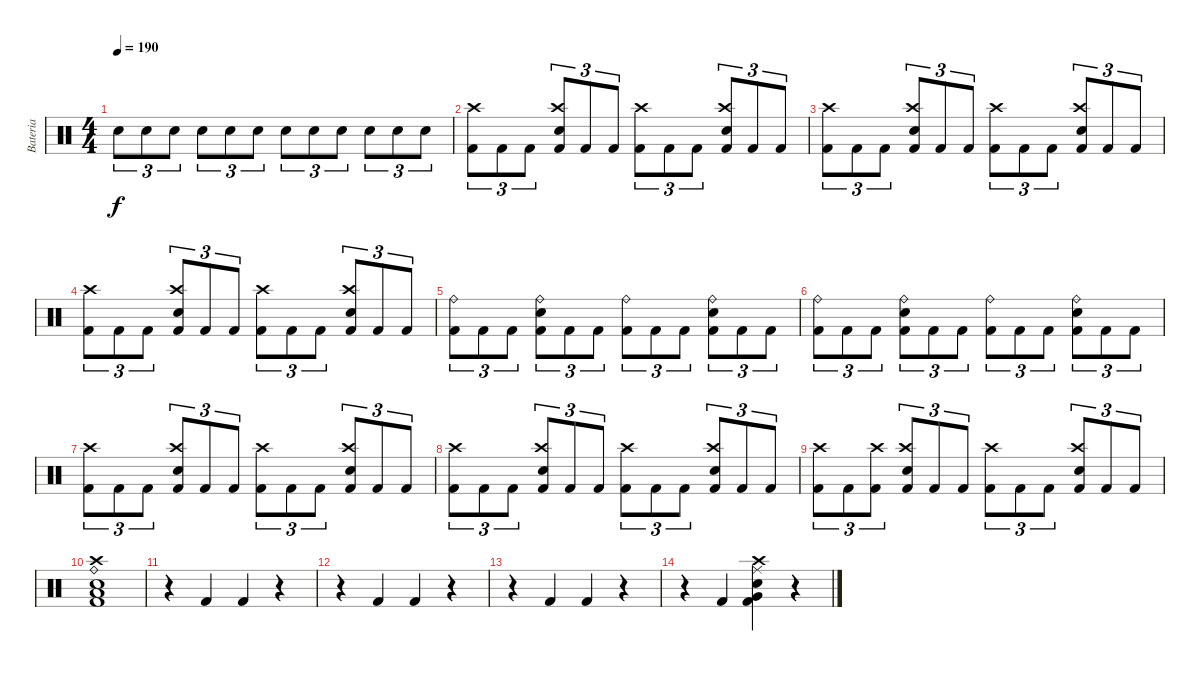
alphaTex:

\track ("Bateria" "Bateria") {instrument percussion}
\staff {score}
\articulation defaults
\ts (4 4)
\tempo 190
\clef neutral
\ks c "Electric Snare (hit)".8{tu (3 2) dy f} "Electric Snare (hit)".8{tu (3 2)} "Electric Snare (hit)".8{tu (3 2)} "Electric Snare (hit)".8{tu (3 2)} "Electric Snare (hit)".8{tu (3 2)} "Electric Snare (hit)".8{tu (3 2)} "Electric Snare (hit)".8{tu (3 2)} "Electric Snare (hit)".8{tu (3 2)} "Electric Snare (hit)".8{tu (3 2)} "Electric Snare (hit)".8{tu (3 2)} "Electric Snare (hit)".8{tu (3 2)} "Electric Snare (hit)".8{tu (3 2)}
|
("Crash high (hit)" "Kick (hit) 2").8{tu (3 2)} "Kick (hit) 2".8{tu (3 2)} "Kick (hit) 2".8{tu (3 2)} ("Crash high (hit)" "Electric Snare (hit)" "Kick (hit) 2").8{tu (3 2)} "Kick (hit) 2".8{tu (3 2)} "Kick (hit) 2".8{tu (3 2)} ("Crash high (hit)" "Kick (hit) 2").8{tu (3 2)} "Kick (hit) 2".8{tu (3 2)} "Kick (hit) 2".8{tu (3 2)} ("Crash high (hit)" "Electric Snare (hit)" "Kick (hit) 2").8{tu (3 2)} "Kick (hit) 2".8{tu (3 2)} "Kick (hit) 2".8{tu (3 2)} |
("Crash high (hit)" "Kick (hit) 2").8{tu (3 2)} "Kick (hit) 2".8{tu (3 2)} "Kick (hit) 2".8{tu (3 2)} ("Crash high (hit)" "Electric Snare (hit)" "Kick (hit) 2").8{tu (3 2)} "Kick (hit) 2".8{tu (3 2)} "Kick (hit) 2".8{tu (3 2)} ("Crash high (hit)" "Kick (hit) 2").8{tu (3 2)} "Kick (hit) 2".8{tu (3 2)} "Kick (hit) 2".8{tu (3 2)} ("Crash high (hit)" "Electric Snare (hit)" "Kick (hit) 2").8{tu (3 2)} "Kick (hit) 2".8{tu (3 2)} "Kick (hit) 2".8{tu (3 2)} |
("Crash high (hit)" "Kick (hit) 2").8{tu (3 2)} "Kick (hit) 2".8{tu (3 2)} "Kick (hit) 2".8{tu (3 2)} ("Crash high (hit)" "Electric Snare (hit)" "Kick (hit) 2").8{tu (3 2)} "Kick (hit) 2".8{tu (3 2)} "Kick (hit) 2".8{tu (3 2)} ("Crash high (hit)" "Kick (hit) 2").8{tu (3 2)} "Kick (hit) 2".8{tu (3 2)} "Kick (hit) 2".8{tu (3 2)} ("Crash high (hit)" "Electric Snare (hit)" "Kick (hit) 2").8{tu (3 2)} "Kick (hit) 2".8{tu (3 2)} "Kick (hit) 2".8{tu (3 2)} |
("Ride (bell)" "Kick (hit) 2").8{tu (3 2)} "Kick (hit) 2".8{tu (3 2)} "Kick (hit) 2".8{tu (3 2)} ("Ride (bell)" "Electric Snare (hit)" "Kick (hit) 2").8{tu (3 2)} "Kick (hit) 2".8{tu (3 2)} "Kick (hit) 2".8{tu (3 2)} ("Ride (bell)" "Kick (hit) 2").8{tu (3 2)} "Kick (hit) 2".8{tu (3 2)} "Kick (hit) 2".8{tu (3 2)} ("Ride (bell)" "Electric Snare (hit)" "Kick (hit) 2").8{tu (3 2)} "Kick (hit) 2".8{tu (3 2)} "Kick (hit) 2".8{tu (3 2)} |
("Ride (bell)" "Kick (hit) 2").8{tu (3 2)} "Kick (hit) 2".8{tu (3 2)} "Kick (hit) 2".8{tu (3 2)} ("Ride (bell)" "Electric Snare (hit)" "Kick (hit) 2").8{tu (3 2)} "Kick (hit) 2".8{tu (3 2)} "Kick (hit) 2".8{tu (3 2)} ("Ride (bell)" "Kick (hit) 2").8{tu (3 2)} "Kick (hit) 2".8{tu (3 2)} "Kick (hit) 2".8{tu (3 2)} ("Ride (bell)" "Electric Snare (hit)" "Kick (hit) 2").8{tu (3 2)} "Kick (hit) 2".8{tu (3 2)} "Kick (hit) 2".8{tu (3 2)} |
("Crash high (hit)" "Kick (hit) 2").8{tu (3 2)} "Kick (hit) 2".8{tu (3 2)} "Kick (hit) 2".8{tu (3 2)} ("Crash high (hit)" "Electric Snare (hit)" "Kick (hit) 2").8{tu (3 2)} "Kick (hit) 2".8{tu (3 2)} "Kick (hit) 2".8{tu (3 2)} ("Crash high (hit)" "Kick (hit) 2").8{tu (3 2)} "Kick (hit) 2".8{tu (3 2)} "Kick (hit) 2".8{tu (3 2)} ("Crash high (hit)" "Electric Snare (hit)" "Kick (hit) 2").8{tu (3 2)} "Kick (hit) 2".8{tu (3 2)} "Kick (hit) 2".8{tu (3 2)} |
("Crash high (hit)" "Kick (hit) 2").8{tu (3 2)} "Kick (hit) 2".8{tu (3 2)} "Kick (hit) 2".8{tu (3 2)} ("Crash high (hit)" "Electric Snare (hit)" "Kick (hit) 2").8{tu (3 2)} "Kick (hit) 2".8{tu (3 2)} "Kick (hit) 2".8{tu (3 2)} ("Crash high (hit)" "Kick (hit) 2").8{tu (3 2)} "Kick (hit) 2".8{tu (3 2)} "Kick (hit) 2".8{tu (3 2)} ("Crash high (hit)" "Electric Snare (hit)" "Kick (hit) 2").8{tu (3 2)} "Kick (hit) 2".8{tu (3 2)} "Kick (hit) 2".8{tu (3 2)} |
("Crash high (hit)" "Kick (hit) 2").8{tu (3 2)} "Kick (hit) 2".8{tu (3 2)} ("Crash high (hit)" "Kick (hit) 2").8{tu (3 2)} ("Crash high (hit)" "Electric Snare (hit)" "Kick (hit) 2").8{tu (3 2)} "Kick (hit) 2".8{tu (3 2)} "Kick (hit) 2".8{tu (3 2)} ("Crash high (hit)" "Kick (hit) 2").8{tu (3 2)} "Kick (hit) 2".8{tu (3 2)} "Kick (hit) 2".8{tu (3 2)} ("Crash high (hit)" "Electric Snare (hit)" "Kick (hit) 2").8{tu (3 2)} "Kick (hit) 2".8{tu (3 2)} "Kick (hit) 2".8{tu (3 2)} |
("Kick (hit) 2" "Electric Snare (hit)" "Low Floor Tom (hit)" "Crash high (hit)" "Ride (bell)").1 |
r.4 "Kick (hit) 2".4 "Kick (hit) 2".4 r.4 |
r.4 "Kick (hit) 2".4 "Kick (hit) 2".4 r.4 |
r.4 "Kick (hit) 2".4 "Kick (hit) 2".4 r.4 |
r.4 "Kick (hit) 2".4 ("Very Low Tom (hit)" "Crash high (hit)" "Ride (middle)" "Kick (hit) 2" "Electric Snare (hit)").4 r.4
